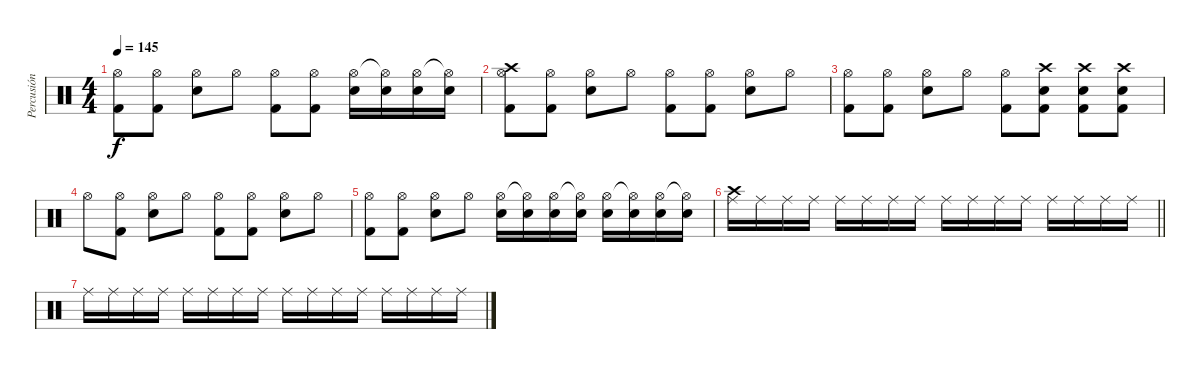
\track ("Percusión" "Percusión") {instrument percussion}
\staff {score}
\articulation defaults
\ts (4 4)
\tempo 145
\clef neutral
\ks c
("Hi-Hat (open)" "Kick (hit) 2").8{dy f} ("Hi-Hat (open)" "Kick (hit) 2").8 ("Hi-Hat (open)" "Snare (hit) 2").8 "Hi-Hat (open)".8 ("Hi-Hat (open)" "Kick (hit) 2").8 ("Hi-Hat (open)" "Kick (hit) 2").8 ("Hi-Hat (open)" "Snare (hit) 2").16 ("Hi-Hat (open)"{t} "Snare (hit) 2").16 ("Hi-Hat (open)" "Snare (hit) 2").16 ("Hi-Hat (open)"{t} "Snare (hit) 2").16 |
("Crash high (hit)" "Hi-Hat (open)" "Kick (hit) 2").8 ("Hi-Hat (open)" "Kick (hit) 2").8 ("Hi-Hat (open)" "Snare (hit) 2").8 "Hi-Hat (open)".8 ("Hi-Hat (open)" "Kick (hit) 2").8 ("Hi-Hat (open)" "Kick (hit) 2").8 ("Hi-Hat (open)" "Snare (hit) 2").8 "Hi-Hat (open)".8 |
("Hi-Hat (open)" "Kick (hit) 2").8 ("Hi-Hat (open)" "Kick (hit) 2").8 ("Hi-Hat (open)" "Snare (hit) 2").8 "Hi-Hat (open)".8 ("Hi-Hat (open)" "Kick (hit) 2").8 ("Crash high (hit)" "Snare (hit) 2" "Kick (hit) 2").8 ("Crash high (hit)" "Snare (hit) 2" "Kick (hit) 2").8 ("Crash high (hit)" "Snare (hit) 2" "Kick (hit) 2").8 |
"Hi-Hat (open)".8 ("Hi-Hat (open)" "Kick (hit) 2").8 ("Hi-Hat (open)" "Snare (hit) 2").8 "Hi-Hat (open)".8 ("Hi-Hat (open)" "Kick (hit) 2").8 ("Hi-Hat (open)" "Kick (hit) 2").8 ("Hi-Hat (open)" "Snare (hit) 2").8 "Hi-Hat (open)".8 |
("Hi-Hat (open)" "Kick (hit) 2").8 ("Hi-Hat (open)" "Kick (hit) 2").8 ("Hi-Hat (open)" "Snare (hit) 2").8 "Hi-Hat (open)".8 ("Hi-Hat (open)" "Snare (hit) 2").16 ("Hi-Hat (open)"{t} "Snare (hit) 2").16 ("Hi-Hat (open)" "Snare (hit) 2").16 ("Hi-Hat (open)"{t} "Snare (hit) 2").16 ("Hi-Hat (open)" "Snare (hit) 2").16 ("Hi-Hat (open)"{t} "Snare (hit) 2").16 ("Hi-Hat (open)" "Snare (hit) 2").16 ("Hi-Hat (open)"{t} "Snare (hit) 2").16 |
\barLineRight lightlight
("Crash high (hit)" "Ride (middle)").16 "Ride (middle)".16 "Ride (middle)".16 "Ride (middle)".16 "Ride (middle)".16 "Ride (middle)".16 "Ride (middle)".16 "Ride (middle)".16 "Ride (middle)".16 "Ride (middle)".16 "Ride (middle)".16 "Ride (middle)".16 "Ride (middle)".16 "Ride (middle)".16 "Ride (middle)".16 "Ride (middle)".16 |
"Ride (middle)".16 "Ride (middle)".16 "Ride (middle)".16 "Ride (middle)".16 "Ride (middle)".16 "Ride (middle)".16 "Ride (middle)".16 "Ride (middle)".16 "Ride (middle)".16 "Ride (middle)".16 "Ride (middle)".16 "Ride (middle)".16 "Ride (middle)".16 "Ride (middle)".16 "Ride (middle)".16 "Ride (middle)".16
